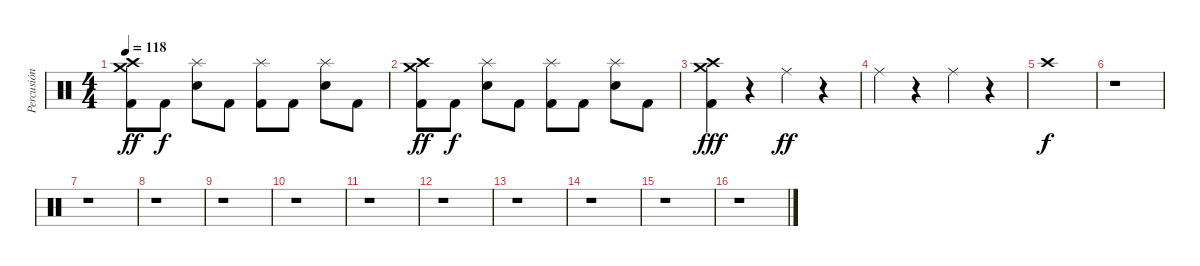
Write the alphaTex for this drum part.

\track ("Percusión" "Percusión") {instrument percussion}
\staff {score}
\articulation defaults
\ts (4 4)
\tempo 118
\clef neutral
\ks c
("Kick (hit) 2" "Crash medium (hit)" "Crash high (hit)").8{dy ff} "Kick (hit) 2".8{dy f} ("Snare (hit) 2" "Splash (hit)").8 "Kick (hit) 2".8 ("Kick (hit) 2" "Splash (hit)").8 "Kick (hit) 2".8 ("Snare (hit) 2" "Splash (hit)").8 "Kick (hit) 2".8 |
("Kick (hit) 2" "Crash medium (hit)" "Crash high (hit)").8{dy ff} "Kick (hit) 2".8{dy f} ("Snare (hit) 2" "Splash (hit)").8 "Kick (hit) 2".8 ("Kick (hit) 2" "Splash (hit)").8 "Kick (hit) 2".8 ("Snare (hit) 2" "Splash (hit)").8 "Kick (hit) 2".8 |
("Kick (hit) 2" "Crash medium (hit)" "Crash high (hit)").4{dy fff} r.4 "Ride (middle)".4{dy ff} r.4 |
"Ride (middle)".4 r.4 "Ride (middle)".4 r.4 |
"Crash high (hit)".1{dy f} |
r.1 |
r.1 |
r.1 |
r.1 |
r.1 |
r.1 |
r.1 |
r.1 |
r.1 |
r.1 |
r.1
